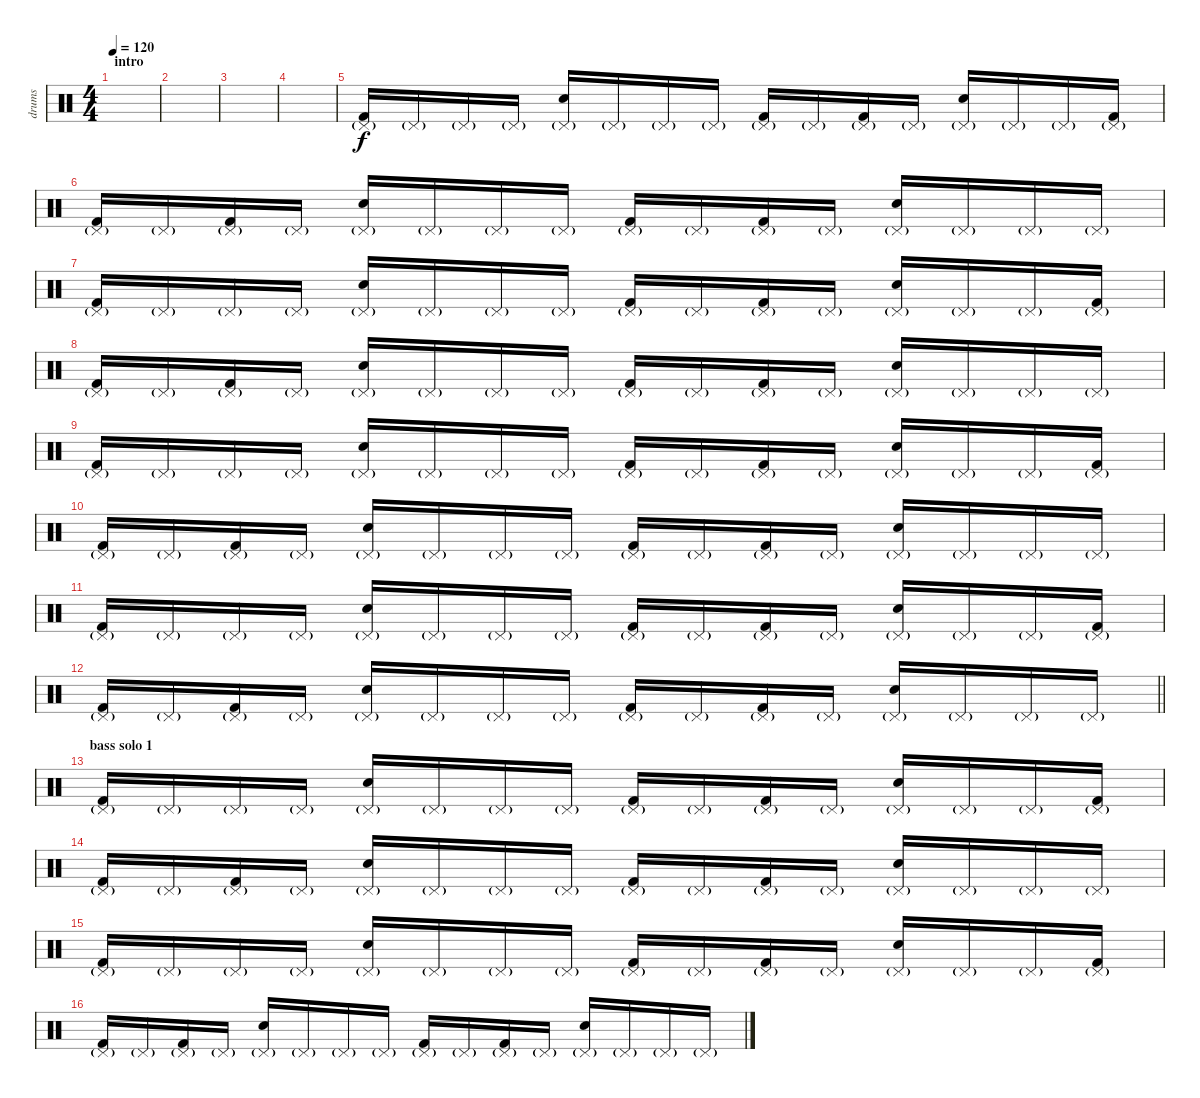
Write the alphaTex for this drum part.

\track ("drums" "drums") {instrument percussion}
\staff {score}
\articulation defaults
\ts (4 4)
\section ("" "intro ")
\tempo 120
\clef neutral
\ks c
|
|
|
|
("Kick (hit) 2" "Pedal Hi-Hat (hit)"{g}).16 "Pedal Hi-Hat (hit)"{g}.16 "Pedal Hi-Hat (hit)"{g}.16 "Pedal Hi-Hat (hit)"{g}.16 ("Hand Clap (hit)" "Pedal Hi-Hat (hit)"{g}).16 "Pedal Hi-Hat (hit)"{g}.16 "Pedal Hi-Hat (hit)"{g}.16 "Pedal Hi-Hat (hit)"{g}.16 ("Kick (hit) 2" "Pedal Hi-Hat (hit)"{g}).16 "Pedal Hi-Hat (hit)"{g}.16 ("Kick (hit) 2" "Pedal Hi-Hat (hit)"{g}).16 "Pedal Hi-Hat (hit)"{g}.16 ("Hand Clap (hit)" "Pedal Hi-Hat (hit)"{g}).16 "Pedal Hi-Hat (hit)"{g}.16 "Pedal Hi-Hat (hit)"{g}.16 ("Kick (hit) 2" "Pedal Hi-Hat (hit)"{g}).16 |
("Kick (hit) 2" "Pedal Hi-Hat (hit)"{g}).16 "Pedal Hi-Hat (hit)"{g}.16 ("Kick (hit) 2" "Pedal Hi-Hat (hit)"{g}).16 "Pedal Hi-Hat (hit)"{g}.16 ("Hand Clap (hit)" "Pedal Hi-Hat (hit)"{g}).16 "Pedal Hi-Hat (hit)"{g}.16 "Pedal Hi-Hat (hit)"{g}.16 "Pedal Hi-Hat (hit)"{g}.16 ("Kick (hit) 2" "Pedal Hi-Hat (hit)"{g}).16 "Pedal Hi-Hat (hit)"{g}.16 ("Kick (hit) 2" "Pedal Hi-Hat (hit)"{g}).16 "Pedal Hi-Hat (hit)"{g}.16 ("Hand Clap (hit)" "Pedal Hi-Hat (hit)"{g}).16 "Pedal Hi-Hat (hit)"{g}.16 "Pedal Hi-Hat (hit)"{g}.16 "Pedal Hi-Hat (hit)"{g}.16 |
("Kick (hit) 2" "Pedal Hi-Hat (hit)"{g}).16 "Pedal Hi-Hat (hit)"{g}.16 "Pedal Hi-Hat (hit)"{g}.16 "Pedal Hi-Hat (hit)"{g}.16 ("Hand Clap (hit)" "Pedal Hi-Hat (hit)"{g}).16 "Pedal Hi-Hat (hit)"{g}.16 "Pedal Hi-Hat (hit)"{g}.16 "Pedal Hi-Hat (hit)"{g}.16 ("Kick (hit) 2" "Pedal Hi-Hat (hit)"{g}).16 "Pedal Hi-Hat (hit)"{g}.16 ("Kick (hit) 2" "Pedal Hi-Hat (hit)"{g}).16 "Pedal Hi-Hat (hit)"{g}.16 ("Hand Clap (hit)" "Pedal Hi-Hat (hit)"{g}).16 "Pedal Hi-Hat (hit)"{g}.16 "Pedal Hi-Hat (hit)"{g}.16 ("Kick (hit) 2" "Pedal Hi-Hat (hit)"{g}).16 |
("Kick (hit) 2" "Pedal Hi-Hat (hit)"{g}).16 "Pedal Hi-Hat (hit)"{g}.16 ("Kick (hit) 2" "Pedal Hi-Hat (hit)"{g}).16 "Pedal Hi-Hat (hit)"{g}.16 ("Hand Clap (hit)" "Pedal Hi-Hat (hit)"{g}).16 "Pedal Hi-Hat (hit)"{g}.16 "Pedal Hi-Hat (hit)"{g}.16 "Pedal Hi-Hat (hit)"{g}.16 ("Kick (hit) 2" "Pedal Hi-Hat (hit)"{g}).16 "Pedal Hi-Hat (hit)"{g}.16 ("Kick (hit) 2" "Pedal Hi-Hat (hit)"{g}).16 "Pedal Hi-Hat (hit)"{g}.16 ("Hand Clap (hit)" "Pedal Hi-Hat (hit)"{g}).16 "Pedal Hi-Hat (hit)"{g}.16 "Pedal Hi-Hat (hit)"{g}.16 "Pedal Hi-Hat (hit)"{g}.16 |
("Kick (hit) 2" "Pedal Hi-Hat (hit)"{g}).16 "Pedal Hi-Hat (hit)"{g}.16 "Pedal Hi-Hat (hit)"{g}.16 "Pedal Hi-Hat (hit)"{g}.16 ("Hand Clap (hit)" "Pedal Hi-Hat (hit)"{g}).16 "Pedal Hi-Hat (hit)"{g}.16 "Pedal Hi-Hat (hit)"{g}.16 "Pedal Hi-Hat (hit)"{g}.16 ("Kick (hit) 2" "Pedal Hi-Hat (hit)"{g}).16 "Pedal Hi-Hat (hit)"{g}.16 ("Kick (hit) 2" "Pedal Hi-Hat (hit)"{g}).16 "Pedal Hi-Hat (hit)"{g}.16 ("Hand Clap (hit)" "Pedal Hi-Hat (hit)"{g}).16 "Pedal Hi-Hat (hit)"{g}.16 "Pedal Hi-Hat (hit)"{g}.16 ("Kick (hit) 2" "Pedal Hi-Hat (hit)"{g}).16 |
("Kick (hit) 2" "Pedal Hi-Hat (hit)"{g}).16 "Pedal Hi-Hat (hit)"{g}.16 ("Kick (hit) 2" "Pedal Hi-Hat (hit)"{g}).16 "Pedal Hi-Hat (hit)"{g}.16 ("Hand Clap (hit)" "Pedal Hi-Hat (hit)"{g}).16 "Pedal Hi-Hat (hit)"{g}.16 "Pedal Hi-Hat (hit)"{g}.16 "Pedal Hi-Hat (hit)"{g}.16 ("Kick (hit) 2" "Pedal Hi-Hat (hit)"{g}).16 "Pedal Hi-Hat (hit)"{g}.16 ("Kick (hit) 2" "Pedal Hi-Hat (hit)"{g}).16 "Pedal Hi-Hat (hit)"{g}.16 ("Hand Clap (hit)" "Pedal Hi-Hat (hit)"{g}).16 "Pedal Hi-Hat (hit)"{g}.16 "Pedal Hi-Hat (hit)"{g}.16 "Pedal Hi-Hat (hit)"{g}.16 |
("Kick (hit) 2" "Pedal Hi-Hat (hit)"{g}).16 "Pedal Hi-Hat (hit)"{g}.16 "Pedal Hi-Hat (hit)"{g}.16 "Pedal Hi-Hat (hit)"{g}.16 ("Hand Clap (hit)" "Pedal Hi-Hat (hit)"{g}).16 "Pedal Hi-Hat (hit)"{g}.16 "Pedal Hi-Hat (hit)"{g}.16 "Pedal Hi-Hat (hit)"{g}.16 ("Kick (hit) 2" "Pedal Hi-Hat (hit)"{g}).16 "Pedal Hi-Hat (hit)"{g}.16 ("Kick (hit) 2" "Pedal Hi-Hat (hit)"{g}).16 "Pedal Hi-Hat (hit)"{g}.16 ("Hand Clap (hit)" "Pedal Hi-Hat (hit)"{g}).16 "Pedal Hi-Hat (hit)"{g}.16 "Pedal Hi-Hat (hit)"{g}.16 ("Kick (hit) 2" "Pedal Hi-Hat (hit)"{g}).16 |
\barLineRight lightlight
("Kick (hit) 2" "Pedal Hi-Hat (hit)"{g}).16 "Pedal Hi-Hat (hit)"{g}.16 ("Kick (hit) 2" "Pedal Hi-Hat (hit)"{g}).16 "Pedal Hi-Hat (hit)"{g}.16 ("Hand Clap (hit)" "Pedal Hi-Hat (hit)"{g}).16 "Pedal Hi-Hat (hit)"{g}.16 "Pedal Hi-Hat (hit)"{g}.16 "Pedal Hi-Hat (hit)"{g}.16 ("Kick (hit) 2" "Pedal Hi-Hat (hit)"{g}).16 "Pedal Hi-Hat (hit)"{g}.16 ("Kick (hit) 2" "Pedal Hi-Hat (hit)"{g}).16 "Pedal Hi-Hat (hit)"{g}.16 ("Hand Clap (hit)" "Pedal Hi-Hat (hit)"{g}).16 "Pedal Hi-Hat (hit)"{g}.16 "Pedal Hi-Hat (hit)"{g}.16 "Pedal Hi-Hat (hit)"{g}.16 |
\section ("" "bass solo 1")
("Kick (hit) 2" "Pedal Hi-Hat (hit)"{g}).16 "Pedal Hi-Hat (hit)"{g}.16 "Pedal Hi-Hat (hit)"{g}.16 "Pedal Hi-Hat (hit)"{g}.16 ("Hand Clap (hit)" "Pedal Hi-Hat (hit)"{g}).16 "Pedal Hi-Hat (hit)"{g}.16 "Pedal Hi-Hat (hit)"{g}.16 "Pedal Hi-Hat (hit)"{g}.16 ("Kick (hit) 2" "Pedal Hi-Hat (hit)"{g}).16 "Pedal Hi-Hat (hit)"{g}.16 ("Kick (hit) 2" "Pedal Hi-Hat (hit)"{g}).16 "Pedal Hi-Hat (hit)"{g}.16 ("Hand Clap (hit)" "Pedal Hi-Hat (hit)"{g}).16 "Pedal Hi-Hat (hit)"{g}.16 "Pedal Hi-Hat (hit)"{g}.16 ("Kick (hit) 2" "Pedal Hi-Hat (hit)"{g}).16 |
("Kick (hit) 2" "Pedal Hi-Hat (hit)"{g}).16 "Pedal Hi-Hat (hit)"{g}.16 ("Kick (hit) 2" "Pedal Hi-Hat (hit)"{g}).16 "Pedal Hi-Hat (hit)"{g}.16 ("Hand Clap (hit)" "Pedal Hi-Hat (hit)"{g}).16 "Pedal Hi-Hat (hit)"{g}.16 "Pedal Hi-Hat (hit)"{g}.16 "Pedal Hi-Hat (hit)"{g}.16 ("Kick (hit) 2" "Pedal Hi-Hat (hit)"{g}).16 "Pedal Hi-Hat (hit)"{g}.16 ("Kick (hit) 2" "Pedal Hi-Hat (hit)"{g}).16 "Pedal Hi-Hat (hit)"{g}.16 ("Hand Clap (hit)" "Pedal Hi-Hat (hit)"{g}).16 "Pedal Hi-Hat (hit)"{g}.16 "Pedal Hi-Hat (hit)"{g}.16 "Pedal Hi-Hat (hit)"{g}.16 |
("Kick (hit) 2" "Pedal Hi-Hat (hit)"{g}).16 "Pedal Hi-Hat (hit)"{g}.16 "Pedal Hi-Hat (hit)"{g}.16 "Pedal Hi-Hat (hit)"{g}.16 ("Hand Clap (hit)" "Pedal Hi-Hat (hit)"{g}).16 "Pedal Hi-Hat (hit)"{g}.16 "Pedal Hi-Hat (hit)"{g}.16 "Pedal Hi-Hat (hit)"{g}.16 ("Kick (hit) 2" "Pedal Hi-Hat (hit)"{g}).16 "Pedal Hi-Hat (hit)"{g}.16 ("Kick (hit) 2" "Pedal Hi-Hat (hit)"{g}).16 "Pedal Hi-Hat (hit)"{g}.16 ("Hand Clap (hit)" "Pedal Hi-Hat (hit)"{g}).16 "Pedal Hi-Hat (hit)"{g}.16 "Pedal Hi-Hat (hit)"{g}.16 ("Kick (hit) 2" "Pedal Hi-Hat (hit)"{g}).16 |
("Kick (hit) 2" "Pedal Hi-Hat (hit)"{g}).16 "Pedal Hi-Hat (hit)"{g}.16 ("Kick (hit) 2" "Pedal Hi-Hat (hit)"{g}).16 "Pedal Hi-Hat (hit)"{g}.16 ("Hand Clap (hit)" "Pedal Hi-Hat (hit)"{g}).16 "Pedal Hi-Hat (hit)"{g}.16 "Pedal Hi-Hat (hit)"{g}.16 "Pedal Hi-Hat (hit)"{g}.16 ("Kick (hit) 2" "Pedal Hi-Hat (hit)"{g}).16 "Pedal Hi-Hat (hit)"{g}.16 ("Kick (hit) 2" "Pedal Hi-Hat (hit)"{g}).16 "Pedal Hi-Hat (hit)"{g}.16 ("Hand Clap (hit)" "Pedal Hi-Hat (hit)"{g}).16 "Pedal Hi-Hat (hit)"{g}.16 "Pedal Hi-Hat (hit)"{g}.16 "Pedal Hi-Hat (hit)"{g}.16
